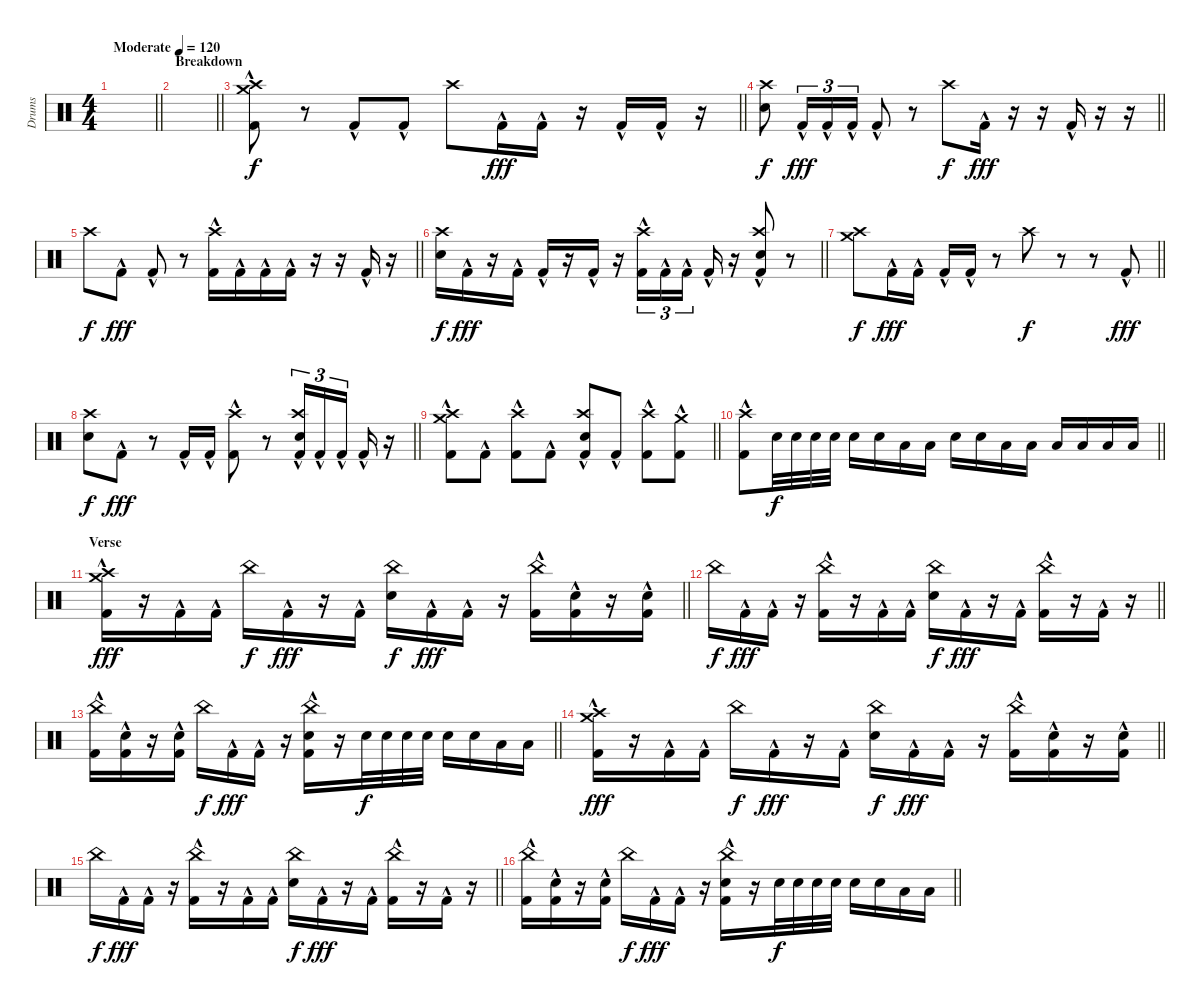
\track ("Drums" "Drums") {instrument percussion}
\staff {score}
\articulation defaults
\ts (4 4)
\tempo (120 "Moderate")
\clef neutral
\barLineRight lightlight
\ks c
|
\section ("" "Breakdown")
\barLineRight lightlight
|
\barLineRight lightlight
("Kick (hit) 2"{hac} "Crash medium (hit)" "Crash high (hit)").8 r.8 "Kick (hit) 2"{hac}.8 "Kick (hit) 2"{hac}.8 "Crash high (hit)".8{dy f} "Kick (hit) 2"{hac}.16{dy fff} "Kick (hit) 2"{hac}.16 r.16 "Kick (hit) 2"{hac}.16 "Kick (hit) 2"{hac}.16 r.16 |
\barLineRight lightlight
("Electric Snare (hit)" "Crash high (hit)").8{dy f} "Kick (hit) 2"{hac}.16{tu (3 2) dy fff} "Kick (hit) 2"{hac}.16{tu (3 2)} "Kick (hit) 2"{hac}.16{tu (3 2)} "Kick (hit) 2"{hac}.8 r.8 "Crash high (hit)".8{dy f} "Kick (hit) 2"{hac}.16{dy fff} r.16 r.16 "Kick (hit) 2"{hac}.16 r.16 r.16 |
\barLineRight lightlight "Crash high (hit)".8{dy f} "Kick (hit) 2"{hac}.8{dy fff} "Kick (hit) 2"{hac}.8
r.8 ("Kick (hit) 2"{hac} "Crash high (hit)").16 "Kick (hit) 2"{hac}.16 "Kick (hit) 2"{hac}.16 "Kick (hit) 2"{hac}.16 r.16 r.16 "Kick (hit) 2"{hac}.16 r.16 |
\barLineRight lightlight
("Electric Snare (hit)" "Crash high (hit)").16{dy f} "Kick (hit) 2"{hac}.16{dy fff} r.16 "Kick (hit) 2"{hac}.16 "Kick (hit) 2"{hac}.16 r.16 "Kick (hit) 2"{hac}.16 r.16 ("Kick (hit) 2"{hac} "Crash high (hit)").16{tu (3 2)} "Kick (hit) 2"{hac}.16{tu (3 2)} "Kick (hit) 2"{hac}.16{tu (3 2) beam splitsecondary} "Kick (hit) 2"{hac}.16 r.16 ("Kick (hit) 2"{hac} "Electric Snare (hit)" "Crash high (hit)").8 r.8 |
\barLineRight lightlight
("Crash medium (hit)" "Crash high (hit)").8{dy f} "Kick (hit) 2"{hac}.16{dy fff} "Kick (hit) 2"{hac}.16 "Kick (hit) 2"{hac}.16 "Kick (hit) 2"{hac}.16 r.8 "Crash high (hit)".8{dy f} r.8 r.8 "Kick (hit) 2"{hac}.8{dy fff} |
\barLineRight lightlight
("Electric Snare (hit)" "Crash high (hit)").8{dy f} "Kick (hit) 2"{hac}.8{dy fff} r.8 "Kick (hit) 2"{hac}.16 "Kick (hit) 2"{hac}.16 ("Kick (hit) 2"{hac} "Crash high (hit)").8 r.8 ("Kick (hit) 2"{hac} "Electric Snare (hit)" "Crash high (hit)").16{tu (3 2)} "Kick (hit) 2"{hac}.16{tu (3 2)} "Kick (hit) 2"{hac}.16{tu (3 2) beam splitsecondary} "Kick (hit) 2"{hac}.16 r.16 |
\barLineRight lightlight
("Crash high (hit)" "Crash medium (hit)" "Kick (hit) 2"{hac}).8 "Kick (hit) 2"{hac}.8 ("Crash high (hit)" "Kick (hit) 2"{hac}).8 "Kick (hit) 2"{hac}.8 ("Crash high (hit)" "Electric Snare (hit)" "Kick (hit) 2"{hac}).8 "Kick (hit) 2"{hac}.8 ("Crash high (hit)" "Kick (hit) 2"{hac}).8 ("Crash medium (hit)" "Kick (hit) 2"{hac}).8 |
\barLineRight lightlight
("Crash high (hit)" "Kick (hit) 2"{hac}).8 "Electric Snare (hit)".32{dy f} "Electric Snare (hit)".32 "Electric Snare (hit)".32 "Electric Snare (hit)".32 "Electric Snare (hit)".16 "Electric Snare (hit)".16 "Low Tom (hit)".16 "Low Tom (hit)".16 "Electric Snare (hit)".16 "Electric Snare (hit)".16 "Low Tom (hit)".16 "Low Tom (hit)".16 "Low Floor Tom (hit)".16 "Low Floor Tom (hit)".16 "Low Floor Tom (hit)".16 "Low Floor Tom (hit)".16 |
\section ("" "Verse")
\barLineRight lightlight
("Kick (hit) 2"{hac} "Crash high (hit)" "Crash medium (hit)").16{dy fff} r.16 "Kick (hit) 2"{hac}.16 "Kick (hit) 2"{hac}.16 "China (hit)".16{dy f} "Kick (hit) 2"{hac}.16{dy fff} r.16 "Kick (hit) 2"{hac}.16 ("Electric Snare (hit)" "China (hit)").16{dy f} "Kick (hit) 2"{hac}.16{dy fff} "Kick (hit) 2"{hac}.16 r.16 ("Kick (hit) 2"{hac} "China (hit)").16 ("Kick (hit) 2"{hac} "Electric Snare (hit)").16 r.16 ("Kick (hit) 2"{hac} "Electric Snare (hit)").16 |
\barLineRight lightlight "China (hit)".16{dy f} "Kick (hit) 2"{hac}.16{dy fff} "Kick (hit) 2"{hac}.16
r.16 ("Kick (hit) 2"{hac} "China (hit)").16 r.16 "Kick (hit) 2"{hac}.16 "Kick (hit) 2"{hac}.16 ("Electric Snare (hit)" "China (hit)").16{dy f} "Kick (hit) 2"{hac}.16{dy fff} r.16 "Kick (hit) 2"{hac}.16 ("Kick (hit) 2"{hac} "China (hit)").16 r.16 "Kick (hit) 2"{hac}.16 r.16 |
\barLineRight lightlight
("Kick (hit) 2"{hac} "China (hit)").16 ("Kick (hit) 2"{hac} "Electric Snare (hit)").16 r.16 ("Kick (hit) 2"{hac} "Electric Snare (hit)").16 "China (hit)".16{dy f} "Kick (hit) 2"{hac}.16{dy fff} "Kick (hit) 2"{hac}.16 r.16 ("Kick (hit) 2"{hac} "Electric Snare (hit)" "China (hit)").16 r.16 "Electric Snare (hit)".32{dy f} "Electric Snare (hit)".32 "Electric Snare (hit)".32 "Electric Snare (hit)".32 "Electric Snare (hit)".16 "Electric Snare (hit)".16 "Low Tom (hit)".16 "Low Tom (hit)".16 |
\barLineRight lightlight
("Kick (hit) 2"{hac} "Crash high (hit)" "Crash medium (hit)").16{dy fff} r.16 "Kick (hit) 2"{hac}.16 "Kick (hit) 2"{hac}.16 "China (hit)".16{dy f} "Kick (hit) 2"{hac}.16{dy fff} r.16 "Kick (hit) 2"{hac}.16 ("Electric Snare (hit)" "China (hit)").16{dy f} "Kick (hit) 2"{hac}.16{dy fff} "Kick (hit) 2"{hac}.16 r.16 ("Kick (hit) 2"{hac} "China (hit)").16 ("Kick (hit) 2"{hac} "Electric Snare (hit)").16 r.16 ("Kick (hit) 2"{hac} "Electric Snare (hit)").16 |
\barLineRight lightlight "China (hit)".16{dy f} "Kick (hit) 2"{hac}.16{dy fff} "Kick (hit) 2"{hac}.16
r.16 ("Kick (hit) 2"{hac} "China (hit)").16 r.16 "Kick (hit) 2"{hac}.16 "Kick (hit) 2"{hac}.16 ("Electric Snare (hit)" "China (hit)").16{dy f} "Kick (hit) 2"{hac}.16{dy fff} r.16 "Kick (hit) 2"{hac}.16 ("Kick (hit) 2"{hac} "China (hit)").16 r.16 "Kick (hit) 2"{hac}.16 r.16 |
\barLineRight lightlight
("Kick (hit) 2"{hac} "China (hit)").16 ("Kick (hit) 2"{hac} "Electric Snare (hit)").16 r.16 ("Kick (hit) 2"{hac} "Electric Snare (hit)").16 "China (hit)".16{dy f} "Kick (hit) 2"{hac}.16{dy fff} "Kick (hit) 2"{hac}.16 r.16 ("Kick (hit) 2"{hac} "Electric Snare (hit)" "China (hit)").16 r.16 "Electric Snare (hit)".32{dy f} "Electric Snare (hit)".32 "Electric Snare (hit)".32 "Electric Snare (hit)".32 "Electric Snare (hit)".16 "Electric Snare (hit)".16 "Low Tom (hit)".16 "Low Tom (hit)".16
